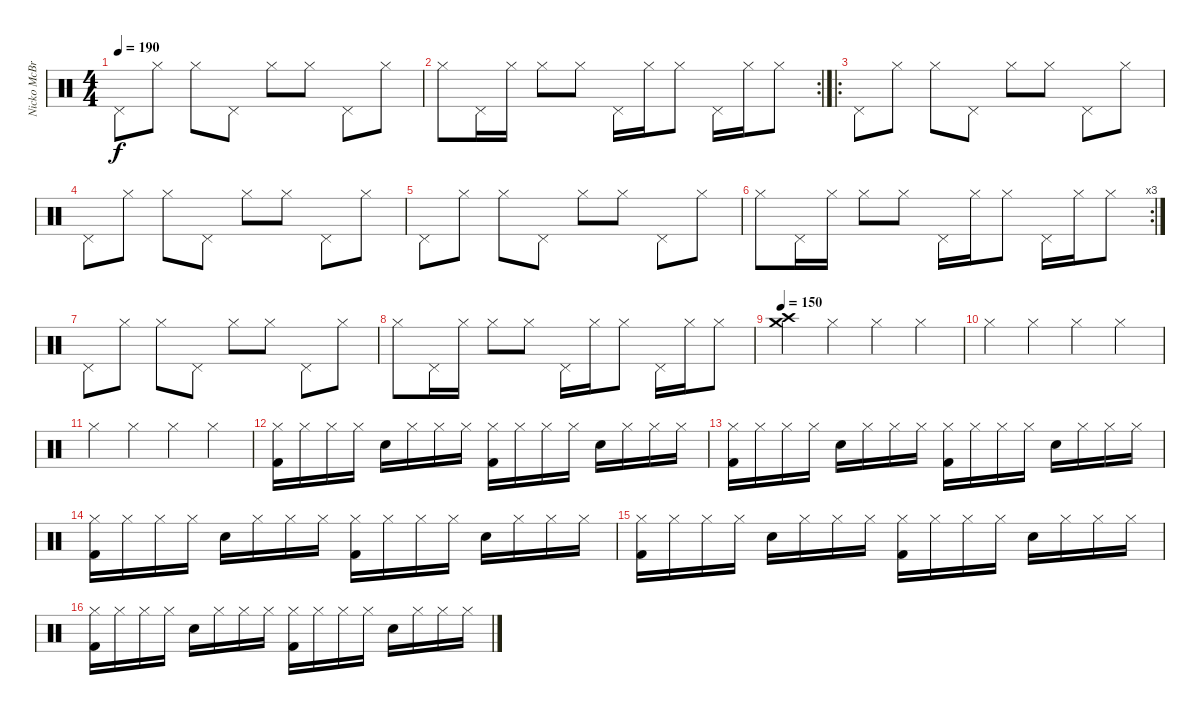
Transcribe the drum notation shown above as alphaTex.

\track ("Nicko McBrain" "Nicko McBr") {instrument percussion}
\staff {score}
\articulation defaults
\ts (4 4)
\tempo 190
\clef neutral
\ks c "Pedal Hi-Hat (hit)".8{dy f} "Hi-Hat (closed)".8 "Hi-Hat (closed)".8 "Pedal Hi-Hat (hit)".8 "Hi-Hat (closed)".8 "Hi-Hat (closed)".8 "Pedal Hi-Hat (hit)".8 "Hi-Hat (closed)".8
|
\rc 2 "Hi-Hat (closed)".8 "Pedal Hi-Hat (hit)".16 "Hi-Hat (closed)".16 "Hi-Hat (closed)".8 "Hi-Hat (closed)".8 "Pedal Hi-Hat (hit)".16 "Hi-Hat (closed)".16 "Hi-Hat (closed)".8 "Pedal Hi-Hat (hit)".16 "Hi-Hat (closed)".16 "Hi-Hat (closed)".8
|
\ro "Pedal Hi-Hat (hit)".8 "Hi-Hat (closed)".8 "Hi-Hat (closed)".8 "Pedal Hi-Hat (hit)".8 "Hi-Hat (closed)".8 "Hi-Hat (closed)".8 "Pedal Hi-Hat (hit)".8 "Hi-Hat (closed)".8
|
"Pedal Hi-Hat (hit)".8 "Hi-Hat (closed)".8 "Hi-Hat (closed)".8 "Pedal Hi-Hat (hit)".8 "Hi-Hat (closed)".8 "Hi-Hat (closed)".8 "Pedal Hi-Hat (hit)".8 "Hi-Hat (closed)".8 |
"Pedal Hi-Hat (hit)".8 "Hi-Hat (closed)".8 "Hi-Hat (closed)".8 "Pedal Hi-Hat (hit)".8 "Hi-Hat (closed)".8 "Hi-Hat (closed)".8 "Pedal Hi-Hat (hit)".8 "Hi-Hat (closed)".8 |
\rc 3 "Hi-Hat (closed)".8 "Pedal Hi-Hat (hit)".16 "Hi-Hat (closed)".16 "Hi-Hat (closed)".8 "Hi-Hat (closed)".8 "Pedal Hi-Hat (hit)".16 "Hi-Hat (closed)".16 "Hi-Hat (closed)".8 "Pedal Hi-Hat (hit)".16 "Hi-Hat (closed)".16 "Hi-Hat (closed)".8
|
"Pedal Hi-Hat (hit)".8 "Hi-Hat (closed)".8 "Hi-Hat (closed)".8 "Pedal Hi-Hat (hit)".8 "Hi-Hat (closed)".8 "Hi-Hat (closed)".8 "Pedal Hi-Hat (hit)".8 "Hi-Hat (closed)".8 |
"Hi-Hat (closed)".8 "Pedal Hi-Hat (hit)".16 "Hi-Hat (closed)".16 "Hi-Hat (closed)".8 "Hi-Hat (closed)".8 "Pedal Hi-Hat (hit)".16 "Hi-Hat (closed)".16 "Hi-Hat (closed)".8 "Pedal Hi-Hat (hit)".16 "Hi-Hat (closed)".16 "Hi-Hat (closed)".8 |
\tempo 150
("Crash high (hit)" "Crash medium (hit)").4 "Hi-Hat (closed)".4 "Hi-Hat (closed)".4 "Hi-Hat (closed)".4 |
"Hi-Hat (closed)".4 "Hi-Hat (closed)".4 "Hi-Hat (closed)".4 "Hi-Hat (closed)".4 |
"Hi-Hat (closed)".4 "Hi-Hat (closed)".4 "Hi-Hat (closed)".4 "Hi-Hat (closed)".4 |
("Hi-Hat (closed)" "Kick (hit) 2").16 "Hi-Hat (closed)".16 "Hi-Hat (closed)".16 "Hi-Hat (closed)".16 "Snare (hit) 2".16 "Hi-Hat (closed)".16 "Hi-Hat (closed)".16 "Hi-Hat (closed)".16 ("Hi-Hat (closed)" "Kick (hit) 2").16 "Hi-Hat (closed)".16 "Hi-Hat (closed)".16 "Hi-Hat (closed)".16 "Snare (hit) 2".16 "Hi-Hat (closed)".16 "Hi-Hat (closed)".16 "Hi-Hat (closed)".16 |
("Hi-Hat (closed)" "Kick (hit) 2").16 "Hi-Hat (closed)".16 "Hi-Hat (closed)".16 "Hi-Hat (closed)".16 "Snare (hit) 2".16 "Hi-Hat (closed)".16 "Hi-Hat (closed)".16 "Hi-Hat (closed)".16 ("Hi-Hat (closed)" "Kick (hit) 2").16 "Hi-Hat (closed)".16 "Hi-Hat (closed)".16 "Hi-Hat (closed)".16 "Snare (hit) 2".16 "Hi-Hat (closed)".16 "Hi-Hat (closed)".16 "Hi-Hat (closed)".16 |
("Hi-Hat (closed)" "Kick (hit) 2").16 "Hi-Hat (closed)".16 "Hi-Hat (closed)".16 "Hi-Hat (closed)".16 "Snare (hit) 2".16 "Hi-Hat (closed)".16 "Hi-Hat (closed)".16 "Hi-Hat (closed)".16 ("Hi-Hat (closed)" "Kick (hit) 2").16 "Hi-Hat (closed)".16 "Hi-Hat (closed)".16 "Hi-Hat (closed)".16 "Snare (hit) 2".16 "Hi-Hat (closed)".16 "Hi-Hat (closed)".16 "Hi-Hat (closed)".16 |
("Hi-Hat (closed)" "Kick (hit) 2").16 "Hi-Hat (closed)".16 "Hi-Hat (closed)".16 "Hi-Hat (closed)".16 "Snare (hit) 2".16 "Hi-Hat (closed)".16 "Hi-Hat (closed)".16 "Hi-Hat (closed)".16 ("Hi-Hat (closed)" "Kick (hit) 2").16 "Hi-Hat (closed)".16 "Hi-Hat (closed)".16 "Hi-Hat (closed)".16 "Snare (hit) 2".16 "Hi-Hat (closed)".16 "Hi-Hat (closed)".16 "Hi-Hat (closed)".16 |
("Hi-Hat (closed)" "Kick (hit) 2").16 "Hi-Hat (closed)".16 "Hi-Hat (closed)".16 "Hi-Hat (closed)".16 "Snare (hit) 2".16 "Hi-Hat (closed)".16 "Hi-Hat (closed)".16 "Hi-Hat (closed)".16 ("Hi-Hat (closed)" "Kick (hit) 2").16 "Hi-Hat (closed)".16 "Hi-Hat (closed)".16 "Hi-Hat (closed)".16 "Snare (hit) 2".16 "Hi-Hat (closed)".16 "Hi-Hat (closed)".16 "Hi-Hat (closed)".16
